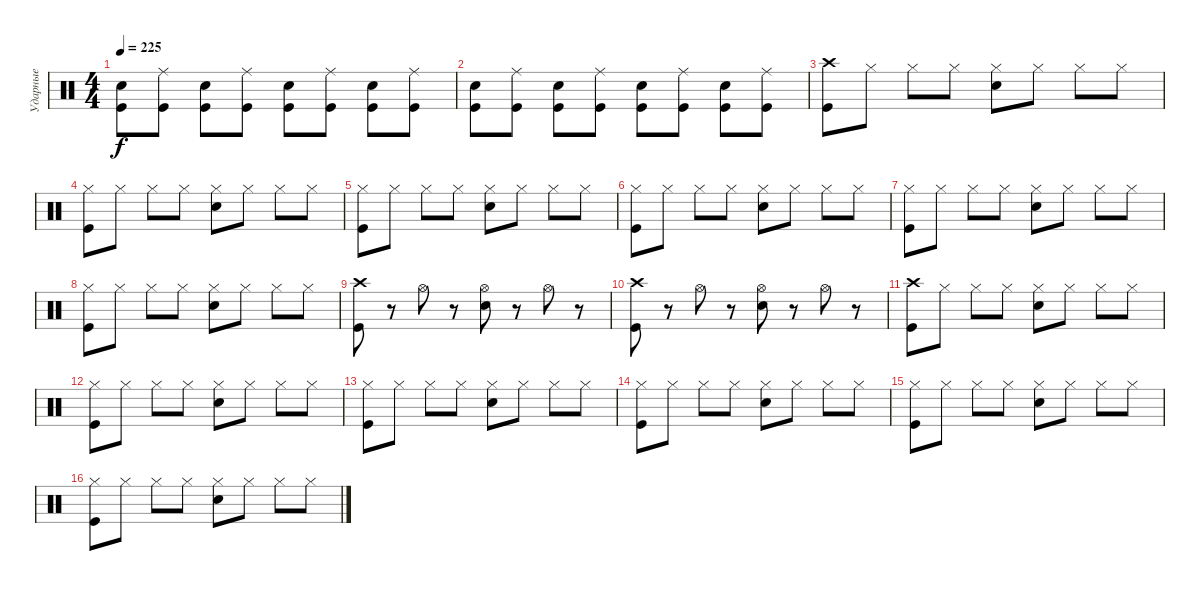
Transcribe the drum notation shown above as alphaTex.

\track ("Ударные" "Ударные") {instrument percussion}
\staff {score}
\articulation defaults
\ts (4 4)
\tempo 225
\clef neutral
\ks c
("Snare (hit) 2" "Kick (hit)").8{dy f} ("Ride (middle)" "Kick (hit)").8 ("Snare (hit) 2" "Kick (hit)").8 ("Ride (middle)" "Kick (hit)").8 ("Snare (hit) 2" "Kick (hit)").8 ("Ride (middle)" "Kick (hit)").8 ("Snare (hit) 2" "Kick (hit)").8 ("Ride (middle)" "Kick (hit)").8 |
("Snare (hit) 2" "Kick (hit)").8 ("Ride (middle)" "Kick (hit)").8 ("Snare (hit) 2" "Kick (hit)").8 ("Ride (middle)" "Kick (hit)").8 ("Snare (hit) 2" "Kick (hit)").8 ("Ride (middle)" "Kick (hit)").8 ("Snare (hit) 2" "Kick (hit)").8 ("Ride (middle)" "Kick (hit)").8 |
("Crash high (hit)" "Kick (hit)").8 "Hi-Hat (closed)".8 "Hi-Hat (closed)".8 "Hi-Hat (closed)".8 ("Hi-Hat (closed)" "Snare (hit) 2").8 "Hi-Hat (closed)".8 "Hi-Hat (closed)".8 "Hi-Hat (closed)".8 |
("Hi-Hat (closed)" "Kick (hit)").8 "Hi-Hat (closed)".8 "Hi-Hat (closed)".8 "Hi-Hat (closed)".8 ("Hi-Hat (closed)" "Snare (hit) 2").8 "Hi-Hat (closed)".8 "Hi-Hat (closed)".8 "Hi-Hat (closed)".8 |
("Hi-Hat (closed)" "Kick (hit)").8 "Hi-Hat (closed)".8 "Hi-Hat (closed)".8 "Hi-Hat (closed)".8 ("Hi-Hat (closed)" "Snare (hit) 2").8 "Hi-Hat (closed)".8 "Hi-Hat (closed)".8 "Hi-Hat (closed)".8 |
("Hi-Hat (closed)" "Kick (hit)").8 "Hi-Hat (closed)".8 "Hi-Hat (closed)".8 "Hi-Hat (closed)".8 ("Hi-Hat (closed)" "Snare (hit) 2").8 "Hi-Hat (closed)".8 "Hi-Hat (closed)".8 "Hi-Hat (closed)".8 |
("Hi-Hat (closed)" "Kick (hit)").8 "Hi-Hat (closed)".8 "Hi-Hat (closed)".8 "Hi-Hat (closed)".8 ("Hi-Hat (closed)" "Snare (hit) 2").8 "Hi-Hat (closed)".8 "Hi-Hat (closed)".8 "Hi-Hat (closed)".8 |
("Hi-Hat (closed)" "Kick (hit)").8 "Hi-Hat (closed)".8 "Hi-Hat (closed)".8 "Hi-Hat (closed)".8 ("Hi-Hat (closed)" "Snare (hit) 2").8 "Hi-Hat (closed)".8 "Hi-Hat (closed)".8 "Hi-Hat (closed)".8 |
("Crash high (hit)" "Kick (hit)").8 r.8 "Hi-Hat (open)".8 r.8 ("Hi-Hat (open)" "Snare (hit) 2").8 r.8 "Hi-Hat (open)".8 r.8 |
("Crash high (hit)" "Kick (hit)").8 r.8 "Hi-Hat (open)".8 r.8 ("Hi-Hat (open)" "Snare (hit) 2").8 r.8 "Hi-Hat (open)".8 r.8 |
("Crash high (hit)" "Kick (hit)").8 "Hi-Hat (closed)".8 "Hi-Hat (closed)".8 "Hi-Hat (closed)".8 ("Hi-Hat (closed)" "Snare (hit) 2").8 "Hi-Hat (closed)".8 "Hi-Hat (closed)".8 "Hi-Hat (closed)".8 |
("Hi-Hat (closed)" "Kick (hit)").8 "Hi-Hat (closed)".8 "Hi-Hat (closed)".8 "Hi-Hat (closed)".8 ("Hi-Hat (closed)" "Snare (hit) 2").8 "Hi-Hat (closed)".8 "Hi-Hat (closed)".8 "Hi-Hat (closed)".8 |
("Hi-Hat (closed)" "Kick (hit)").8 "Hi-Hat (closed)".8 "Hi-Hat (closed)".8 "Hi-Hat (closed)".8 ("Hi-Hat (closed)" "Snare (hit) 2").8 "Hi-Hat (closed)".8 "Hi-Hat (closed)".8 "Hi-Hat (closed)".8 |
("Hi-Hat (closed)" "Kick (hit)").8 "Hi-Hat (closed)".8 "Hi-Hat (closed)".8 "Hi-Hat (closed)".8 ("Hi-Hat (closed)" "Snare (hit) 2").8 "Hi-Hat (closed)".8 "Hi-Hat (closed)".8 "Hi-Hat (closed)".8 |
("Hi-Hat (closed)" "Kick (hit)").8 "Hi-Hat (closed)".8 "Hi-Hat (closed)".8 "Hi-Hat (closed)".8 ("Hi-Hat (closed)" "Snare (hit) 2").8 "Hi-Hat (closed)".8 "Hi-Hat (closed)".8 "Hi-Hat (closed)".8 |
("Hi-Hat (closed)" "Kick (hit)").8 "Hi-Hat (closed)".8 "Hi-Hat (closed)".8 "Hi-Hat (closed)".8 ("Hi-Hat (closed)" "Snare (hit) 2").8 "Hi-Hat (closed)".8 "Hi-Hat (closed)".8 "Hi-Hat (closed)".8
